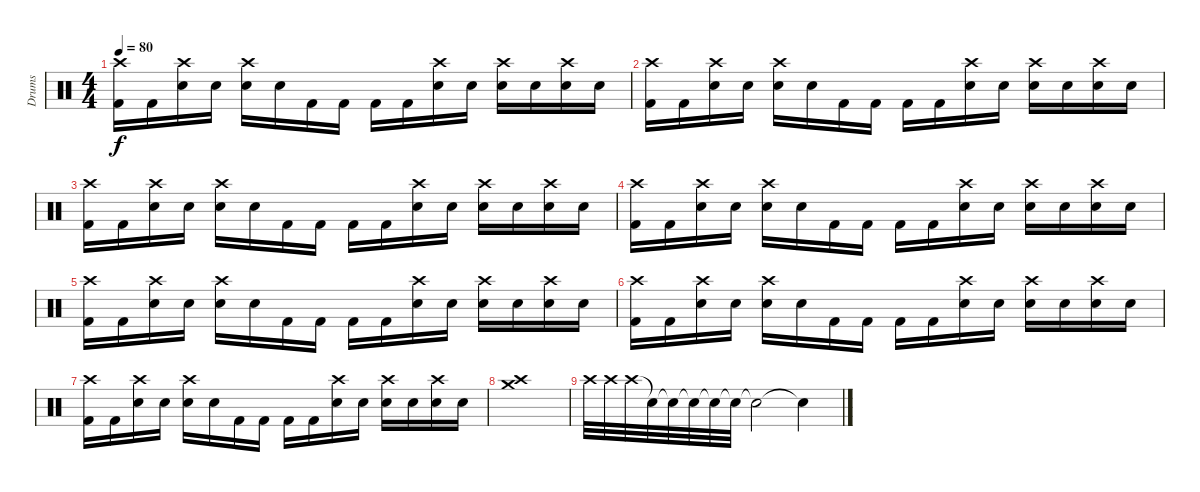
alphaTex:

\track ("Drums" "Drums") {instrument percussion}
\staff {score}
\articulation defaults
\ts (4 4)
\tempo 80
\clef neutral
\ks c
("Crash high (hit)" "Kick (hit) 2").16{dy f} "Kick (hit) 2".16 ("Crash high (hit)" "Snare (hit)"{x}).16 "Snare (hit)"{x}.16 ("Crash high (hit)" "Snare (hit) 2").16 "Snare (hit)"{x}.16 "Kick (hit) 2".16 "Kick (hit) 2".16 "Kick (hit) 2".16 "Kick (hit) 2".16 ("Crash high (hit)" "Snare (hit)"{x}).16 "Snare (hit)"{x}.16 ("Crash high (hit)" "Snare (hit) 2").16 "Snare (hit)"{x}.16 ("Crash high (hit)" "Snare (hit) 2").16 "Snare (hit)"{x}.16 |
("Crash high (hit)" "Kick (hit) 2").16 "Kick (hit) 2".16 ("Crash high (hit)" "Snare (hit)"{x}).16 "Snare (hit)"{x}.16 ("Crash high (hit)" "Snare (hit) 2").16 "Snare (hit)"{x}.16 "Kick (hit) 2".16 "Kick (hit) 2".16 "Kick (hit) 2".16 "Kick (hit) 2".16 ("Crash high (hit)" "Snare (hit)"{x}).16 "Snare (hit)"{x}.16 ("Crash high (hit)" "Snare (hit) 2").16 "Snare (hit)"{x}.16 ("Crash high (hit)" "Snare (hit)"{x}).16 "Snare (hit)"{x}.16 |
("Crash high (hit)" "Kick (hit) 2").16 "Kick (hit) 2".16 ("Crash high (hit)" "Snare (hit)"{x}).16 "Snare (hit)"{x}.16 ("Crash high (hit)" "Snare (hit) 2").16 "Snare (hit)"{x}.16 "Kick (hit) 2".16 "Kick (hit) 2".16 "Kick (hit) 2".16 "Kick (hit) 2".16 ("Crash high (hit)" "Snare (hit)"{x}).16 "Snare (hit)"{x}.16 ("Crash high (hit)" "Snare (hit) 2").16 "Snare (hit) 2".16 ("Crash high (hit)" "Snare (hit) 2").16 "Snare (hit) 2".16 |
("Crash high (hit)" "Kick (hit) 2").16 "Kick (hit) 2".16 ("Crash high (hit)" "Snare (hit)"{x}).16 "Snare (hit)"{x}.16 ("Crash high (hit)" "Snare (hit) 2").16 "Snare (hit)"{x}.16 "Kick (hit) 2".16 "Kick (hit) 2".16 "Kick (hit) 2".16 "Kick (hit) 2".16 ("Crash high (hit)" "Snare (hit)"{x}).16 "Snare (hit)"{x}.16 ("Crash high (hit)" "Snare (hit) 2").16 "Snare (hit)"{x}.16 ("Crash high (hit)" "Snare (hit)"{x}).16 "Snare (hit)"{x}.16 |
("Crash high (hit)" "Kick (hit) 2").16 "Kick (hit) 2".16 ("Crash high (hit)" "Snare (hit)"{x}).16 "Snare (hit)"{x}.16 ("Crash high (hit)" "Snare (hit) 2").16 "Snare (hit)"{x}.16 "Kick (hit) 2".16 "Kick (hit) 2".16 "Kick (hit) 2".16 "Kick (hit) 2".16 ("Crash high (hit)" "Snare (hit)"{x}).16 "Snare (hit)"{x}.16 ("Crash high (hit)" "Snare (hit) 2").16 "Snare (hit)"{x}.16 ("Crash high (hit)" "Snare (hit) 2").16 "Snare (hit)"{x}.16 |
("Crash high (hit)" "Kick (hit) 2").16 "Kick (hit) 2".16 ("Crash high (hit)" "Snare (hit)"{x}).16 "Snare (hit)"{x}.16 ("Crash high (hit)" "Snare (hit) 2").16 "Snare (hit)"{x}.16 "Kick (hit) 2".16 "Kick (hit) 2".16 "Kick (hit) 2".16 "Kick (hit) 2".16 ("Crash high (hit)" "Snare (hit)"{x}).16 "Snare (hit)"{x}.16 ("Crash high (hit)" "Snare (hit) 2").16 "Snare (hit)"{x}.16 ("Crash high (hit)" "Snare (hit)"{x}).16 "Snare (hit)"{x}.16 |
("Crash high (hit)" "Kick (hit) 2").16 "Kick (hit) 2".16 ("Crash high (hit)" "Snare (hit)"{x}).16 "Snare (hit)"{x}.16 ("Crash high (hit)" "Snare (hit) 2").16 "Snare (hit)"{x}.16 "Kick (hit) 2".16 "Kick (hit) 2".16 "Kick (hit) 2".16 "Kick (hit) 2".16 ("Crash high (hit)" "Snare (hit)"{x}).16 "Snare (hit)"{x}.16 ("Crash high (hit)" "Snare (hit) 2").16 "Snare (hit) 2".16 ("Crash high (hit)" "Snare (hit) 2").16 "Snare (hit) 2".16 |
("Crash medium (hit)" "Crash high (hit)").1 |
"Crash high (hit)".32 "Crash high (hit)".32 "Crash high (hit)".32 "Snare (hit)"{t}.32 "Snare (hit)"{t}.32 "Snare (hit)"{t}.32 "Snare (hit)"{t}.32 "Snare (hit)"{t}.32 "Snare (hit)"{t}.2 "Snare (hit)"{t}.4
